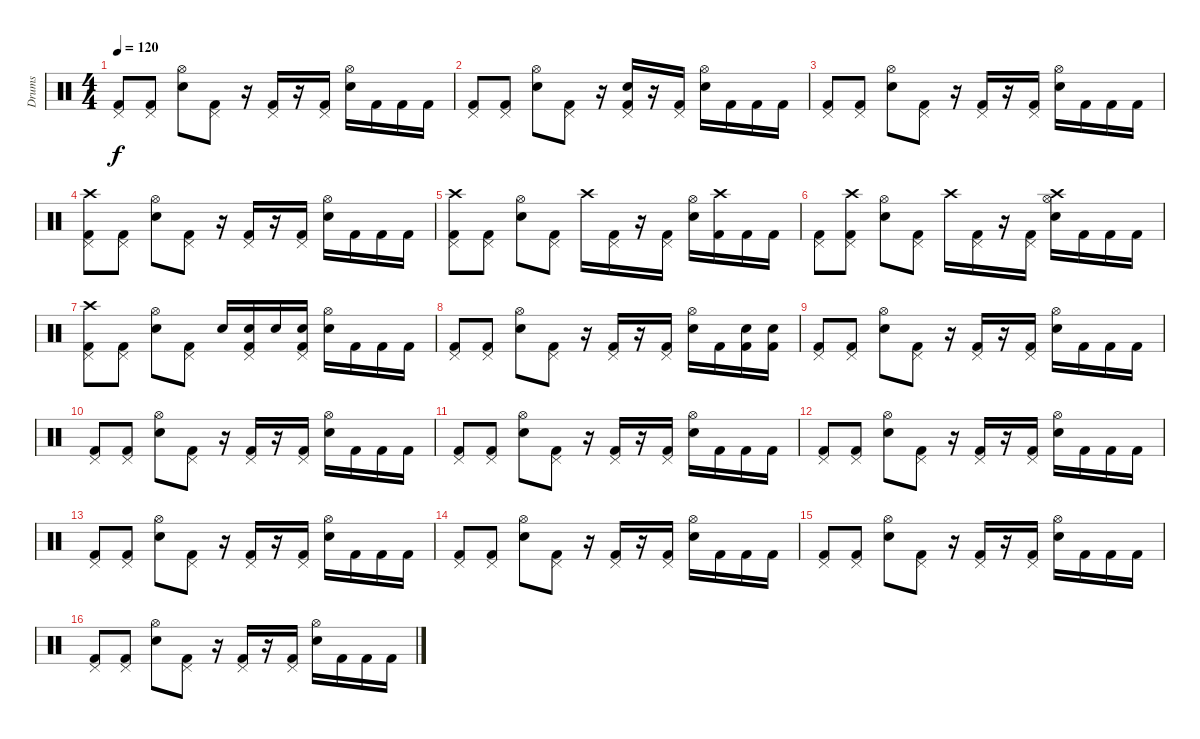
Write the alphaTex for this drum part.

\track ("Drums" "Drums") {instrument percussion}
\staff {score}
\articulation defaults
\ts (4 4)
\tempo 120
\clef neutral
\ks c
("Pedal Hi-Hat (hit)" "Kick (hit) 2").8{dy f} ("Pedal Hi-Hat (hit)" "Kick (hit) 2").8 ("Hi-Hat (open)" "Electric Snare (hit)").8 ("Pedal Hi-Hat (hit)" "Kick (hit) 2").8 r.16 ("Pedal Hi-Hat (hit)" "Kick (hit) 2").16 r.16 ("Pedal Hi-Hat (hit)" "Kick (hit) 2").16 ("Hi-Hat (open)" "Electric Snare (hit)").16 "Kick (hit) 2".16 "Kick (hit) 2".16 "Kick (hit) 2".16 |
("Pedal Hi-Hat (hit)" "Kick (hit) 2").8 ("Pedal Hi-Hat (hit)" "Kick (hit) 2").8 ("Hi-Hat (open)" "Electric Snare (hit)").8 ("Pedal Hi-Hat (hit)" "Kick (hit) 2").8 r.16 ("Pedal Hi-Hat (hit)" "Electric Snare (hit)" "Kick (hit) 2").16 r.16 ("Pedal Hi-Hat (hit)" "Kick (hit) 2").16 ("Hi-Hat (open)" "Electric Snare (hit)").16 "Kick (hit) 2".16 "Kick (hit) 2".16 "Kick (hit) 2".16 |
("Pedal Hi-Hat (hit)" "Kick (hit) 2").8 ("Pedal Hi-Hat (hit)" "Kick (hit) 2").8 ("Hi-Hat (open)" "Electric Snare (hit)").8 ("Pedal Hi-Hat (hit)" "Kick (hit) 2").8 r.16 ("Pedal Hi-Hat (hit)" "Kick (hit) 2").16 r.16 ("Pedal Hi-Hat (hit)" "Kick (hit) 2").16 ("Hi-Hat (open)" "Electric Snare (hit)").16 "Kick (hit) 2".16 "Kick (hit) 2".16 "Kick (hit) 2".16 |
("Crash high (hit)" "Pedal Hi-Hat (hit)" "Kick (hit) 2").8 ("Pedal Hi-Hat (hit)" "Kick (hit) 2").8 ("Hi-Hat (open)" "Electric Snare (hit)").8 ("Pedal Hi-Hat (hit)" "Kick (hit) 2").8 r.16 ("Pedal Hi-Hat (hit)" "Kick (hit) 2").16 r.16 ("Pedal Hi-Hat (hit)" "Kick (hit) 2").16 ("Hi-Hat (open)" "Electric Snare (hit)").16 "Kick (hit) 2".16 "Kick (hit) 2".16 "Kick (hit) 2".16 |
("Crash high (hit)" "Pedal Hi-Hat (hit)" "Kick (hit) 2").8 ("Pedal Hi-Hat (hit)" "Kick (hit) 2").8 ("Hi-Hat (open)" "Electric Snare (hit)").8 ("Pedal Hi-Hat (hit)" "Kick (hit) 2").8 "Crash high (hit)".16 ("Pedal Hi-Hat (hit)" "Kick (hit) 2").16 r.16 ("Pedal Hi-Hat (hit)" "Kick (hit) 2").16 ("Hi-Hat (open)" "Electric Snare (hit)").16 ("Crash high (hit)" "Kick (hit) 2").16 "Kick (hit) 2".16 "Kick (hit) 2".16 |
("Pedal Hi-Hat (hit)" "Kick (hit) 2").8 ("Crash high (hit)" "Pedal Hi-Hat (hit)" "Kick (hit) 2").8 ("Hi-Hat (open)" "Electric Snare (hit)").8 ("Pedal Hi-Hat (hit)" "Kick (hit) 2").8 "Crash high (hit)".16 ("Pedal Hi-Hat (hit)" "Kick (hit) 2").16 r.16 ("Pedal Hi-Hat (hit)" "Kick (hit) 2").16 ("Crash high (hit)" "Hi-Hat (open)" "Electric Snare (hit)").16 "Kick (hit) 2".16 "Kick (hit) 2".16 "Kick (hit) 2".16 |
("Crash high (hit)" "Pedal Hi-Hat (hit)" "Kick (hit) 2").8 ("Pedal Hi-Hat (hit)" "Kick (hit) 2").8 ("Hi-Hat (open)" "Electric Snare (hit)").8 ("Pedal Hi-Hat (hit)" "Kick (hit) 2").8 "Electric Snare (hit)".16 ("Pedal Hi-Hat (hit)" "Electric Snare (hit)" "Kick (hit) 2").16 "Electric Snare (hit)".16 ("Pedal Hi-Hat (hit)" "Electric Snare (hit)" "Kick (hit) 2").16 ("Hi-Hat (open)" "Electric Snare (hit)").16 "Kick (hit) 2".16 "Kick (hit) 2".16 "Kick (hit) 2".16 |
("Pedal Hi-Hat (hit)" "Kick (hit) 2").8 ("Pedal Hi-Hat (hit)" "Kick (hit) 2").8 ("Hi-Hat (open)" "Electric Snare (hit)").8 ("Pedal Hi-Hat (hit)" "Kick (hit) 2").8 r.16 ("Pedal Hi-Hat (hit)" "Kick (hit) 2").16 r.16 ("Pedal Hi-Hat (hit)" "Kick (hit) 2").16 ("Hi-Hat (open)" "Electric Snare (hit)").16 "Kick (hit) 2".16 ("Electric Snare (hit)" "Kick (hit) 2").16 ("Electric Snare (hit)" "Kick (hit) 2").16 |
("Pedal Hi-Hat (hit)" "Kick (hit) 2").8 ("Pedal Hi-Hat (hit)" "Kick (hit) 2").8 ("Hi-Hat (open)" "Electric Snare (hit)").8 ("Pedal Hi-Hat (hit)" "Kick (hit) 2").8 r.16 ("Pedal Hi-Hat (hit)" "Kick (hit) 2").16 r.16 ("Pedal Hi-Hat (hit)" "Kick (hit) 2").16 ("Hi-Hat (open)" "Electric Snare (hit)").16 "Kick (hit) 2".16 "Kick (hit) 2".16 "Kick (hit) 2".16 |
("Pedal Hi-Hat (hit)" "Kick (hit) 2").8 ("Pedal Hi-Hat (hit)" "Kick (hit) 2").8 ("Hi-Hat (open)" "Electric Snare (hit)").8 ("Pedal Hi-Hat (hit)" "Kick (hit) 2").8 r.16 ("Pedal Hi-Hat (hit)" "Kick (hit) 2").16 r.16 ("Pedal Hi-Hat (hit)" "Kick (hit) 2").16 ("Hi-Hat (open)" "Electric Snare (hit)").16 "Kick (hit) 2".16 "Kick (hit) 2".16 "Kick (hit) 2".16 |
("Pedal Hi-Hat (hit)" "Kick (hit) 2").8 ("Pedal Hi-Hat (hit)" "Kick (hit) 2").8 ("Hi-Hat (open)" "Electric Snare (hit)").8 ("Pedal Hi-Hat (hit)" "Kick (hit) 2").8 r.16 ("Pedal Hi-Hat (hit)" "Kick (hit) 2").16 r.16 ("Pedal Hi-Hat (hit)" "Kick (hit) 2").16 ("Hi-Hat (open)" "Electric Snare (hit)").16 "Kick (hit) 2".16 "Kick (hit) 2".16 "Kick (hit) 2".16 |
("Pedal Hi-Hat (hit)" "Kick (hit) 2").8 ("Pedal Hi-Hat (hit)" "Kick (hit) 2").8 ("Hi-Hat (open)" "Electric Snare (hit)").8 ("Pedal Hi-Hat (hit)" "Kick (hit) 2").8 r.16 ("Pedal Hi-Hat (hit)" "Kick (hit) 2").16 r.16 ("Pedal Hi-Hat (hit)" "Kick (hit) 2").16 ("Hi-Hat (open)" "Electric Snare (hit)").16 "Kick (hit) 2".16 "Kick (hit) 2".16 "Kick (hit) 2".16 |
("Pedal Hi-Hat (hit)" "Kick (hit) 2").8 ("Pedal Hi-Hat (hit)" "Kick (hit) 2").8 ("Hi-Hat (open)" "Electric Snare (hit)").8 ("Pedal Hi-Hat (hit)" "Kick (hit) 2").8 r.16 ("Pedal Hi-Hat (hit)" "Kick (hit) 2").16 r.16 ("Pedal Hi-Hat (hit)" "Kick (hit) 2").16 ("Hi-Hat (open)" "Electric Snare (hit)").16 "Kick (hit) 2".16 "Kick (hit) 2".16 "Kick (hit) 2".16 |
("Pedal Hi-Hat (hit)" "Kick (hit) 2").8 ("Pedal Hi-Hat (hit)" "Kick (hit) 2").8 ("Hi-Hat (open)" "Electric Snare (hit)").8 ("Pedal Hi-Hat (hit)" "Kick (hit) 2").8 r.16 ("Pedal Hi-Hat (hit)" "Kick (hit) 2").16 r.16 ("Pedal Hi-Hat (hit)" "Kick (hit) 2").16 ("Hi-Hat (open)" "Electric Snare (hit)").16 "Kick (hit) 2".16 "Kick (hit) 2".16 "Kick (hit) 2".16 |
("Pedal Hi-Hat (hit)" "Kick (hit) 2").8 ("Pedal Hi-Hat (hit)" "Kick (hit) 2").8 ("Hi-Hat (open)" "Electric Snare (hit)").8 ("Pedal Hi-Hat (hit)" "Kick (hit) 2").8 r.16 ("Pedal Hi-Hat (hit)" "Kick (hit) 2").16 r.16 ("Pedal Hi-Hat (hit)" "Kick (hit) 2").16 ("Hi-Hat (open)" "Electric Snare (hit)").16 "Kick (hit) 2".16 "Kick (hit) 2".16 "Kick (hit) 2".16 |
("Pedal Hi-Hat (hit)" "Kick (hit) 2").8 ("Pedal Hi-Hat (hit)" "Kick (hit) 2").8 ("Hi-Hat (open)" "Electric Snare (hit)").8 ("Pedal Hi-Hat (hit)" "Kick (hit) 2").8 r.16 ("Pedal Hi-Hat (hit)" "Kick (hit) 2").16 r.16 ("Pedal Hi-Hat (hit)" "Kick (hit) 2").16 ("Hi-Hat (open)" "Electric Snare (hit)").16 "Kick (hit) 2".16 "Kick (hit) 2".16 "Kick (hit) 2".16
